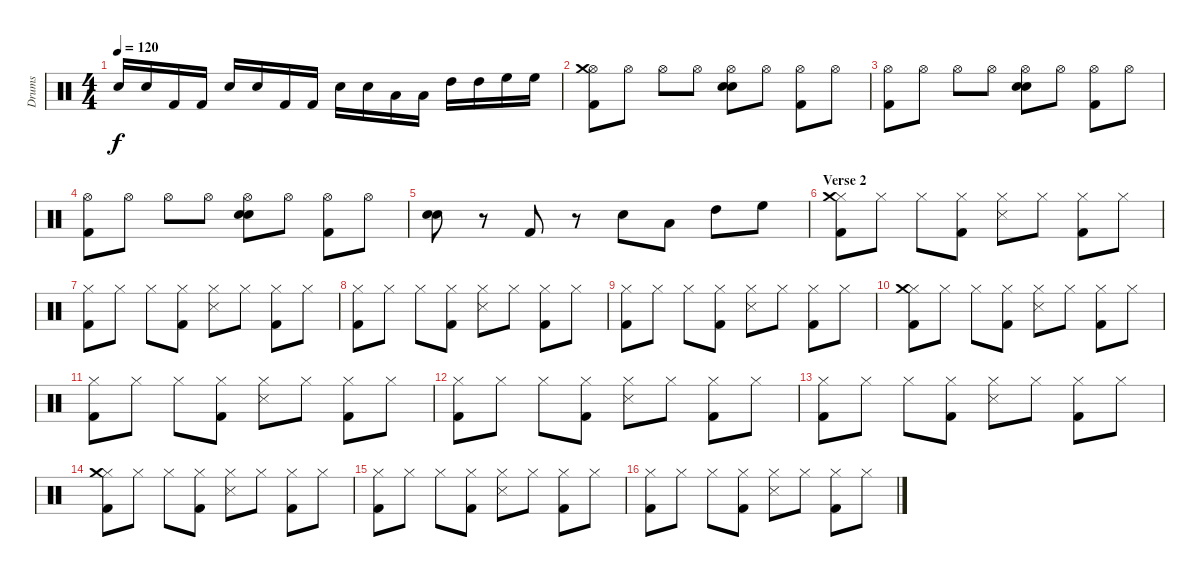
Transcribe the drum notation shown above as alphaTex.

\track ("Drums" "Drums") {instrument percussion}
\staff {score}
\articulation defaults
\ts (4 4)
\tempo 120
\clef neutral
\ks c "Snare (hit) 2".16{dy f} "Snare (hit) 2".16 "Kick (hit) 2".16 "Kick (hit) 2".16 "Snare (hit) 2".16 "Snare (hit) 2".16 "Kick (hit) 2".16 "Kick (hit) 2".16 "Snare (hit) 2".16 "Snare (hit) 2".16 "Low Tom (hit)".16 "Low Tom (hit)".16 "High Tom (hit)".16 "High Tom (hit)".16 "High Floor Tom (hit)".16 "High Floor Tom (hit)".16
|
("Hi-Hat (open)" "Kick (hit) 2" "Crash medium (hit)").8 "Hi-Hat (open)".8 "Hi-Hat (open)".8 "Hi-Hat (open)".8 ("Hi-Hat (open)" "Snare (hit) 2" "Electric Snare (hit)").8 "Hi-Hat (open)".8 ("Hi-Hat (open)" "Kick (hit) 2").8 "Hi-Hat (open)".8 |
("Hi-Hat (open)" "Kick (hit) 2").8 "Hi-Hat (open)".8 "Hi-Hat (open)".8 "Hi-Hat (open)".8 ("Hi-Hat (open)" "Snare (hit) 2" "Electric Snare (hit)").8 "Hi-Hat (open)".8 ("Hi-Hat (open)" "Kick (hit) 2").8 "Hi-Hat (open)".8 |
("Hi-Hat (open)" "Kick (hit) 2").8 "Hi-Hat (open)".8 "Hi-Hat (open)".8 "Hi-Hat (open)".8 ("Hi-Hat (open)" "Snare (hit) 2" "Electric Snare (hit)").8 "Hi-Hat (open)".8 ("Hi-Hat (open)" "Kick (hit) 2").8 "Hi-Hat (open)".8 |
("Snare (hit) 2" "Electric Snare (hit)").8 r.8 "Kick (hit) 2".8 r.8 "Snare (hit) 2".8 "Low Tom (hit)".8 "High Tom (hit)".8 "High Floor Tom (hit)".8 |
\section ("" "Verse 2")
("Hi-Hat (closed)" "Kick (hit) 2" "Crash medium (hit)").8 "Hi-Hat (closed)".8 "Hi-Hat (closed)".8 ("Hi-Hat (closed)" "Kick (hit) 2").8 ("Hi-Hat (closed)" "Snare (side stick) 3").8 "Hi-Hat (closed)".8 ("Hi-Hat (closed)" "Kick (hit) 2").8 "Hi-Hat (closed)".8 |
("Hi-Hat (closed)" "Kick (hit) 2").8 "Hi-Hat (closed)".8 "Hi-Hat (closed)".8 ("Hi-Hat (closed)" "Kick (hit) 2").8 ("Hi-Hat (closed)" "Snare (side stick) 3").8 "Hi-Hat (closed)".8 ("Hi-Hat (closed)" "Kick (hit) 2").8 "Hi-Hat (closed)".8 |
("Hi-Hat (closed)" "Kick (hit) 2").8 "Hi-Hat (closed)".8 "Hi-Hat (closed)".8 ("Hi-Hat (closed)" "Kick (hit) 2").8 ("Hi-Hat (closed)" "Snare (side stick) 3").8 "Hi-Hat (closed)".8 ("Hi-Hat (closed)" "Kick (hit) 2").8 "Hi-Hat (closed)".8 |
("Hi-Hat (closed)" "Kick (hit) 2").8 "Hi-Hat (closed)".8 "Hi-Hat (closed)".8 ("Hi-Hat (closed)" "Kick (hit) 2").8 ("Hi-Hat (closed)" "Snare (side stick) 3").8 "Hi-Hat (closed)".8 ("Hi-Hat (closed)" "Kick (hit) 2").8 "Hi-Hat (closed)".8 |
("Hi-Hat (closed)" "Kick (hit) 2" "Crash medium (hit)").8 "Hi-Hat (closed)".8 "Hi-Hat (closed)".8 ("Hi-Hat (closed)" "Kick (hit) 2").8 ("Hi-Hat (closed)" "Snare (side stick) 3").8 "Hi-Hat (closed)".8 ("Hi-Hat (closed)" "Kick (hit) 2").8 "Hi-Hat (closed)".8 |
("Hi-Hat (closed)" "Kick (hit) 2").8 "Hi-Hat (closed)".8 "Hi-Hat (closed)".8 ("Hi-Hat (closed)" "Kick (hit) 2").8 ("Hi-Hat (closed)" "Snare (side stick) 3").8 "Hi-Hat (closed)".8 ("Hi-Hat (closed)" "Kick (hit) 2").8 "Hi-Hat (closed)".8 |
("Hi-Hat (closed)" "Kick (hit) 2").8 "Hi-Hat (closed)".8 "Hi-Hat (closed)".8 ("Hi-Hat (closed)" "Kick (hit) 2").8 ("Hi-Hat (closed)" "Snare (side stick) 3").8 "Hi-Hat (closed)".8 ("Hi-Hat (closed)" "Kick (hit) 2").8 "Hi-Hat (closed)".8 |
("Hi-Hat (closed)" "Kick (hit) 2").8 "Hi-Hat (closed)".8 "Hi-Hat (closed)".8 ("Hi-Hat (closed)" "Kick (hit) 2").8 ("Hi-Hat (closed)" "Snare (side stick) 3").8 "Hi-Hat (closed)".8 ("Hi-Hat (closed)" "Kick (hit) 2").8 "Hi-Hat (closed)".8 |
("Hi-Hat (closed)" "Kick (hit) 2" "Crash medium (hit)").8 "Hi-Hat (closed)".8 "Hi-Hat (closed)".8 ("Hi-Hat (closed)" "Kick (hit) 2").8 ("Hi-Hat (closed)" "Snare (side stick) 3").8 "Hi-Hat (closed)".8 ("Hi-Hat (closed)" "Kick (hit) 2").8 "Hi-Hat (closed)".8 |
("Hi-Hat (closed)" "Kick (hit) 2").8 "Hi-Hat (closed)".8 "Hi-Hat (closed)".8 ("Hi-Hat (closed)" "Kick (hit) 2").8 ("Hi-Hat (closed)" "Snare (side stick) 3").8 "Hi-Hat (closed)".8 ("Hi-Hat (closed)" "Kick (hit) 2").8 "Hi-Hat (closed)".8 |
("Hi-Hat (closed)" "Kick (hit) 2").8 "Hi-Hat (closed)".8 "Hi-Hat (closed)".8 ("Hi-Hat (closed)" "Kick (hit) 2").8 ("Hi-Hat (closed)" "Snare (side stick) 3").8 "Hi-Hat (closed)".8 ("Hi-Hat (closed)" "Kick (hit) 2").8 "Hi-Hat (closed)".8
